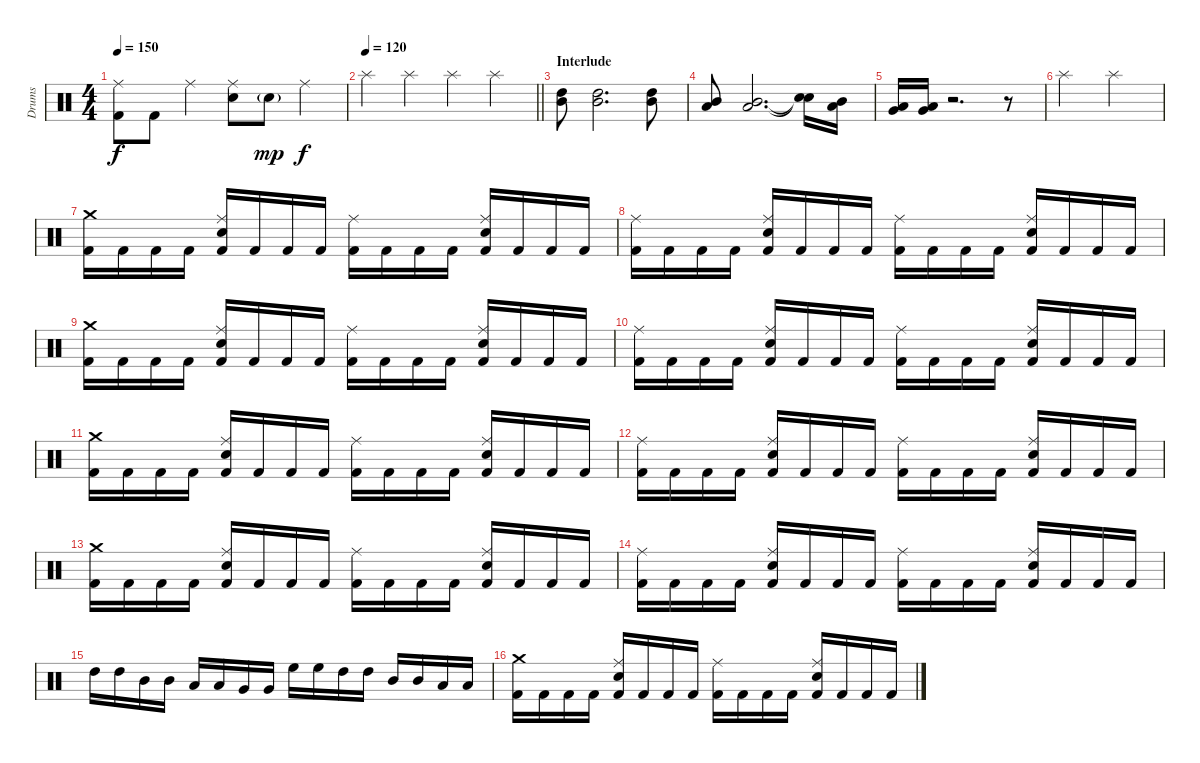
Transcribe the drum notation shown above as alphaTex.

\track ("Drums" "Drums") {instrument percussion}
\staff {score}
\articulation defaults
\ts (4 4)
\tempo 150
\clef neutral
\ks c
("Kick (hit) 2" "Ride (middle)").8{dy f} "Kick (hit) 2".8 "Ride (middle)".4 ("Snare (hit) 2" "Ride (middle)").8 "Snare (hit) 2"{g}.8{dy mp} "Ride (middle)".4{dy f} |
\tempo 120
\barLineRight lightlight "Splash (hit)".4 "Splash (hit)".4 "Splash (hit)".4 "Splash (hit)".4
|
\section ("" "Interlude")
("High Tom (hit)" "Mid Tom (hit)").8 ("High Tom (hit)" "Mid Tom (hit)").2{d} ("High Tom (hit)" "Mid Tom (hit)").8 |
("Mid Tom (hit)" "Low Tom (hit)").8 ("Mid Tom (hit)" "Low Tom (hit)").2{d} ("Snare (hit)"{t} "Snare (hit)"{t}).16 ("Mid Tom (hit)" "Low Tom (hit)").16 |
("Low Tom (hit)" "Very Low Tom (hit)").16 ("Low Tom (hit)" "Very Low Tom (hit)").16 r.2{d} r.8 |
"Splash (hit)".2 "Splash (hit)".2 |
("Kick (hit) 2" "Crash medium (hit)").16 "Kick (hit) 2".16 "Kick (hit) 2".16 "Kick (hit) 2".16 ("Kick (hit) 2" "Snare (hit) 2" "Ride (middle)").16 "Kick (hit) 2".16 "Kick (hit) 2".16 "Kick (hit) 2".16 ("Kick (hit) 2" "Ride (middle)").16 "Kick (hit) 2".16 "Kick (hit) 2".16 "Kick (hit) 2".16 ("Kick (hit) 2" "Snare (hit) 2" "Ride (middle)").16 "Kick (hit) 2".16 "Kick (hit) 2".16 "Kick (hit) 2".16 |
("Kick (hit) 2" "Ride (middle)").16 "Kick (hit) 2".16 "Kick (hit) 2".16 "Kick (hit) 2".16 ("Kick (hit) 2" "Snare (hit) 2" "Ride (middle)").16 "Kick (hit) 2".16 "Kick (hit) 2".16 "Kick (hit) 2".16 ("Kick (hit) 2" "Ride (middle)").16 "Kick (hit) 2".16 "Kick (hit) 2".16 "Kick (hit) 2".16 ("Kick (hit) 2" "Snare (hit) 2" "Ride (middle)").16 "Kick (hit) 2".16 "Kick (hit) 2".16 "Kick (hit) 2".16 |
("Kick (hit) 2" "Crash medium (hit)").16 "Kick (hit) 2".16 "Kick (hit) 2".16 "Kick (hit) 2".16 ("Kick (hit) 2" "Snare (hit) 2" "Ride (middle)").16 "Kick (hit) 2".16 "Kick (hit) 2".16 "Kick (hit) 2".16 ("Kick (hit) 2" "Ride (middle)").16 "Kick (hit) 2".16 "Kick (hit) 2".16 "Kick (hit) 2".16 ("Kick (hit) 2" "Snare (hit) 2" "Ride (middle)").16 "Kick (hit) 2".16 "Kick (hit) 2".16 "Kick (hit) 2".16 |
("Kick (hit) 2" "Ride (middle)").16 "Kick (hit) 2".16 "Kick (hit) 2".16 "Kick (hit) 2".16 ("Kick (hit) 2" "Snare (hit) 2" "Ride (middle)").16 "Kick (hit) 2".16 "Kick (hit) 2".16 "Kick (hit) 2".16 ("Kick (hit) 2" "Ride (middle)").16 "Kick (hit) 2".16 "Kick (hit) 2".16 "Kick (hit) 2".16 ("Kick (hit) 2" "Snare (hit) 2" "Ride (middle)").16 "Kick (hit) 2".16 "Kick (hit) 2".16 "Kick (hit) 2".16 |
("Kick (hit) 2" "Crash medium (hit)").16 "Kick (hit) 2".16 "Kick (hit) 2".16 "Kick (hit) 2".16 ("Kick (hit) 2" "Snare (hit) 2" "Ride (middle)").16 "Kick (hit) 2".16 "Kick (hit) 2".16 "Kick (hit) 2".16 ("Kick (hit) 2" "Ride (middle)").16 "Kick (hit) 2".16 "Kick (hit) 2".16 "Kick (hit) 2".16 ("Kick (hit) 2" "Snare (hit) 2" "Ride (middle)").16 "Kick (hit) 2".16 "Kick (hit) 2".16 "Kick (hit) 2".16 |
("Kick (hit) 2" "Ride (middle)").16 "Kick (hit) 2".16 "Kick (hit) 2".16 "Kick (hit) 2".16 ("Kick (hit) 2" "Snare (hit) 2" "Ride (middle)").16 "Kick (hit) 2".16 "Kick (hit) 2".16 "Kick (hit) 2".16 ("Kick (hit) 2" "Ride (middle)").16 "Kick (hit) 2".16 "Kick (hit) 2".16 "Kick (hit) 2".16 ("Kick (hit) 2" "Snare (hit) 2" "Ride (middle)").16 "Kick (hit) 2".16 "Kick (hit) 2".16 "Kick (hit) 2".16 |
("Kick (hit) 2" "Crash medium (hit)").16 "Kick (hit) 2".16 "Kick (hit) 2".16 "Kick (hit) 2".16 ("Kick (hit) 2" "Snare (hit) 2" "Ride (middle)").16 "Kick (hit) 2".16 "Kick (hit) 2".16 "Kick (hit) 2".16 ("Kick (hit) 2" "Ride (middle)").16 "Kick (hit) 2".16 "Kick (hit) 2".16 "Kick (hit) 2".16 ("Kick (hit) 2" "Snare (hit) 2" "Ride (middle)").16 "Kick (hit) 2".16 "Kick (hit) 2".16 "Kick (hit) 2".16 |
("Kick (hit) 2" "Ride (middle)").16 "Kick (hit) 2".16 "Kick (hit) 2".16 "Kick (hit) 2".16 ("Kick (hit) 2" "Snare (hit) 2" "Ride (middle)").16 "Kick (hit) 2".16 "Kick (hit) 2".16 "Kick (hit) 2".16 ("Kick (hit) 2" "Ride (middle)").16 "Kick (hit) 2".16 "Kick (hit) 2".16 "Kick (hit) 2".16 ("Kick (hit) 2" "Snare (hit) 2" "Ride (middle)").16 "Kick (hit) 2".16 "Kick (hit) 2".16 "Kick (hit) 2".16 |
"High Tom (hit)".16 "High Tom (hit)".16 "Mid Tom (hit)".16 "Mid Tom (hit)".16 "Low Tom (hit)".16 "Low Tom (hit)".16 "Very Low Tom (hit)".16 "Very Low Tom (hit)".16 "High Floor Tom (hit)".16 "High Floor Tom (hit)".16 "High Tom (hit)".16 "High Tom (hit)".16 "Mid Tom (hit)".16 "Mid Tom (hit)".16 "Low Tom (hit)".16 "Low Tom (hit)".16 |
("Kick (hit) 2" "Crash medium (hit)").16 "Kick (hit) 2".16 "Kick (hit) 2".16 "Kick (hit) 2".16 ("Kick (hit) 2" "Snare (hit) 2" "Ride (middle)").16 "Kick (hit) 2".16 "Kick (hit) 2".16 "Kick (hit) 2".16 ("Kick (hit) 2" "Ride (middle)").16 "Kick (hit) 2".16 "Kick (hit) 2".16 "Kick (hit) 2".16 ("Kick (hit) 2" "Snare (hit) 2" "Ride (middle)").16 "Kick (hit) 2".16 "Kick (hit) 2".16 "Kick (hit) 2".16
